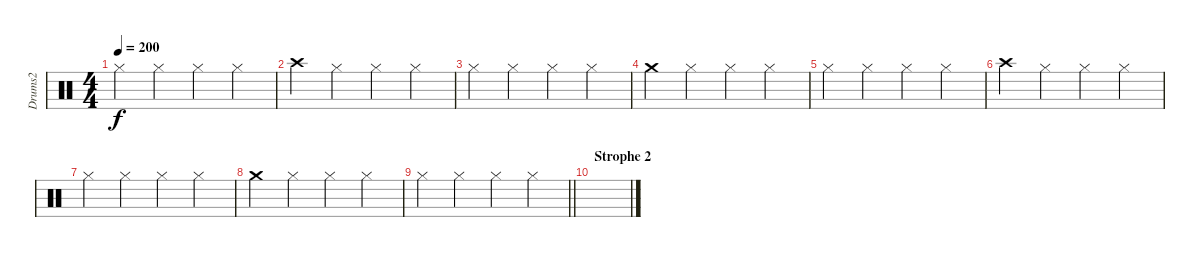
\track ("Drums2" "Drums2") {instrument percussion}
\staff {score}
\articulation defaults
\ts (4 4)
\tempo 200
\clef neutral
\ks c "Hi-Hat (closed)".4{dy f} "Hi-Hat (closed)".4 "Hi-Hat (closed)".4 "Hi-Hat (closed)".4
|
"Crash high (hit)".4 "Hi-Hat (closed)".4 "Hi-Hat (closed)".4 "Hi-Hat (closed)".4 |
"Hi-Hat (closed)".4 "Hi-Hat (closed)".4 "Hi-Hat (closed)".4 "Hi-Hat (closed)".4 |
"Crash medium (hit)".4 "Hi-Hat (closed)".4 "Hi-Hat (closed)".4 "Hi-Hat (closed)".4 |
"Hi-Hat (closed)".4 "Hi-Hat (closed)".4 "Hi-Hat (closed)".4 "Hi-Hat (closed)".4 |
"Crash high (hit)".4 "Hi-Hat (closed)".4 "Hi-Hat (closed)".4 "Hi-Hat (closed)".4 |
"Hi-Hat (closed)".4 "Hi-Hat (closed)".4 "Hi-Hat (closed)".4 "Hi-Hat (closed)".4 |
"Crash medium (hit)".4 "Hi-Hat (closed)".4 "Hi-Hat (closed)".4 "Hi-Hat (closed)".4 |
\barLineRight lightlight "Hi-Hat (closed)".4 "Hi-Hat (closed)".4 "Hi-Hat (closed)".4 "Hi-Hat (closed)".4
|
\section ("" "Strophe 2")
